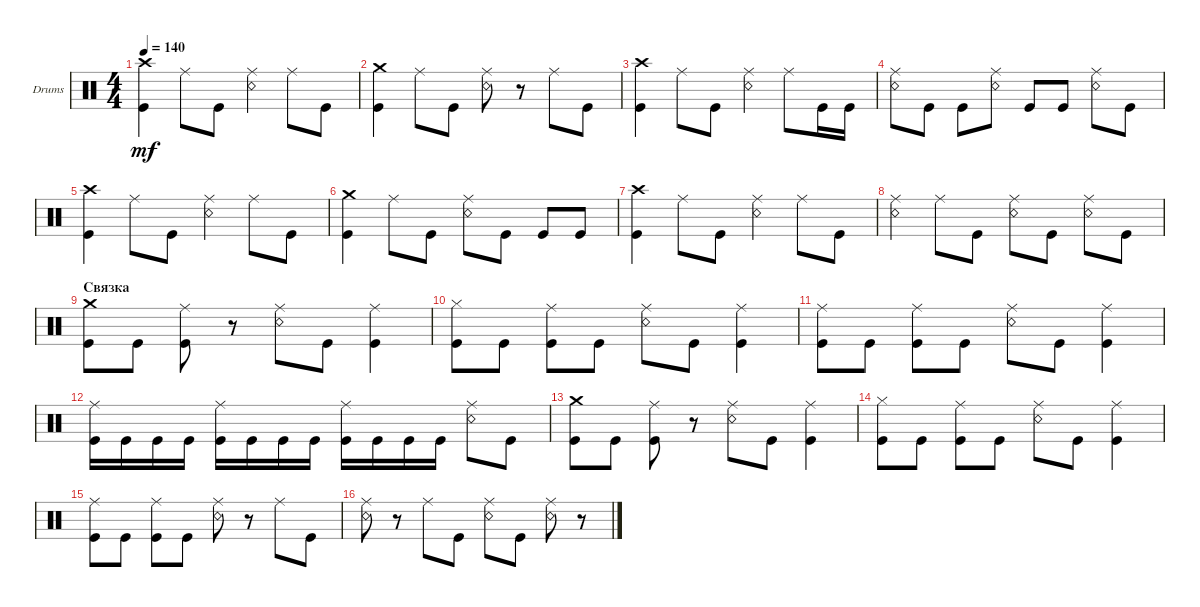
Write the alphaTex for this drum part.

\defaultSystemsLayout 4
\bracketExtendMode groupsimilarinstruments
\firstSystemTrackNameOrientation horizontal
\otherSystemsTrackNameOrientation horizontal
\track ("Drumkit" "Drums") {instrument percussion}
\staff {score}
\articulation defaults
\ts (4 4)
\tempo 140
\clef neutral
\ks c
("Kick (hit)" "Crash high (hit)").4{dy mf} "Ride (middle)".8 "Kick (hit)".8 ("Snare (rim shot)" "Ride (middle)").4 "Ride (middle)".8 "Kick (hit)".8 |
("Kick (hit)" "Crash medium (hit)").4 "Ride (middle)".8 "Kick (hit)".8 ("Snare (rim shot)" "Ride (middle)").8 r.8 "Ride (middle)".8 "Kick (hit)".8 |
("Kick (hit)" "Crash high (hit)").4 "Ride (middle)".8 "Kick (hit)".8 ("Snare (rim shot)" "Ride (middle)").4 "Ride (middle)".8 "Kick (hit)".16 "Kick (hit)".16 |
("Snare (rim shot)" "Ride (middle)").8 "Kick (hit)".8 "Kick (hit)".8 ("Snare (rim shot)" "Ride (middle)").8 "Kick (hit)".8 "Kick (hit)".8 ("Snare (rim shot)" "Ride (middle)").8 "Kick (hit)".8 |
("Kick (hit)" "Crash high (hit)").4 "Ride (middle)".8 "Kick (hit)".8 ("Snare (rim shot)" "Ride (middle)").4 "Ride (middle)".8 "Kick (hit)".8 |
("Kick (hit)" "Crash medium (hit)").4 "Ride (middle)".8 "Kick (hit)".8 ("Snare (rim shot)" "Ride (middle)").8 "Kick (hit)".8 "Kick (hit)".8 "Kick (hit)".8 |
("Kick (hit)" "Crash high (hit)").4 "Ride (middle)".8 "Kick (hit)".8 ("Snare (rim shot)" "Ride (middle)").4 "Ride (middle)".8 "Kick (hit)".8 |
("Snare (rim shot)" "Ride (middle)").4 "Ride (middle)".8 "Kick (hit)".8 ("Snare (rim shot)" "Ride (middle)").8 "Kick (hit)".8 ("Snare (rim shot)" "Ride (middle)").8 "Kick (hit)".8 |
\section ("" "Связка")
("Kick (hit)" "Crash medium (hit)").8 "Kick (hit)".8 ("Kick (hit)" "Ride (middle)").8 r.8 ("Snare (rim shot)" "Ride (middle)").8 "Kick (hit)".8 ("Kick (hit)" "Ride (middle)").4 |
("Kick (hit)" "Hi-Hat (closed)").8 "Kick (hit)".8 ("Kick (hit)" "Ride (middle)").8 "Kick (hit)".8 ("Snare (rim shot)" "Ride (middle)").8 "Kick (hit)".8 ("Kick (hit)" "Ride (middle)").4 |
("Kick (hit)" "Ride (middle)").8 "Kick (hit)".8 ("Kick (hit)" "Ride (middle)").8 "Kick (hit)".8 ("Snare (rim shot)" "Ride (middle)").8 "Kick (hit)".8 ("Kick (hit)" "Ride (middle)").4 |
("Kick (hit)" "Ride (middle)").16 "Kick (hit)".16 "Kick (hit)".16 "Kick (hit)".16 ("Kick (hit)" "Ride (middle)").16 "Kick (hit)".16 "Kick (hit)".16 "Kick (hit)".16 ("Kick (hit)" "Ride (middle)").16 "Kick (hit)".16 "Kick (hit)".16 "Kick (hit)".16 ("Snare (rim shot)" "Ride (middle)").8 "Kick (hit)".8 |
("Kick (hit)" "Crash medium (hit)").8 "Kick (hit)".8 ("Kick (hit)" "Ride (middle)").8 r.8 ("Snare (rim shot)" "Ride (middle)").8 "Kick (hit)".8 ("Kick (hit)" "Ride (middle)").4 |
("Kick (hit)" "Hi-Hat (closed)").8 "Kick (hit)".8 ("Kick (hit)" "Ride (middle)").8 "Kick (hit)".8 ("Snare (rim shot)" "Ride (middle)").8 "Kick (hit)".8 ("Kick (hit)" "Ride (middle)").4 |
("Kick (hit)" "Ride (middle)").8 "Kick (hit)".8 ("Kick (hit)" "Ride (middle)").8 "Kick (hit)".8 ("Snare (rim shot)" "Ride (middle)").8 r.8 "Ride (middle)".8 "Kick (hit)".8 |
("Snare (rim shot)" "Ride (middle)").8 r.8 "Ride (middle)".8 "Kick (hit)".8 ("Ride (middle)" "Snare (rim shot)").8 "Kick (hit)".8 ("Ride (middle)" "Snare (rim shot)").8 r.8
